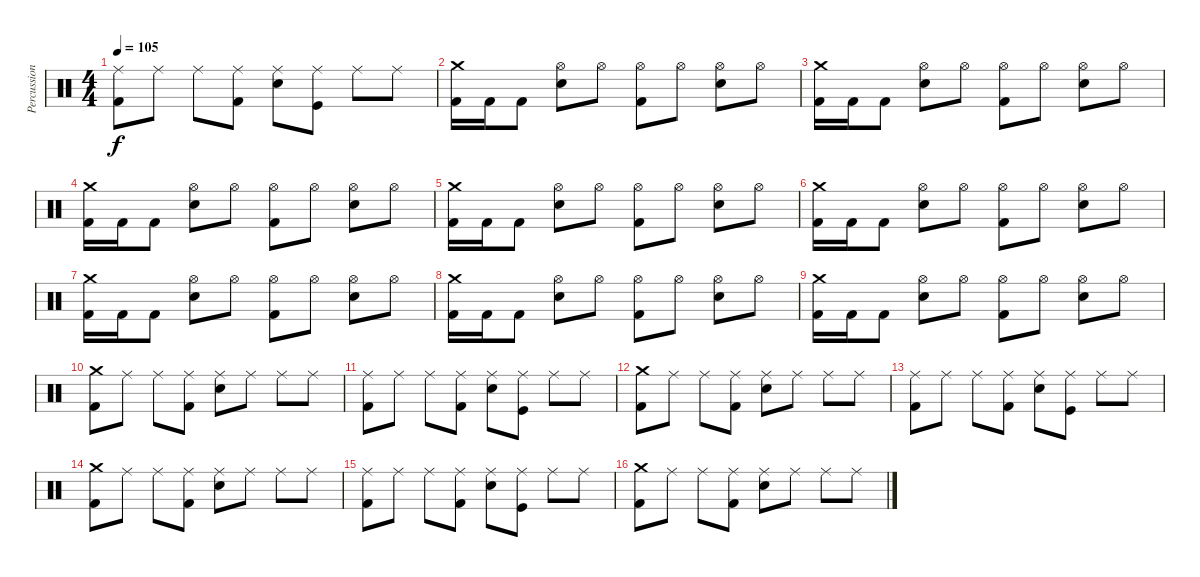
\track ("Percussion" "Percussion") {instrument percussion}
\staff {score}
\articulation defaults
\ts (4 4)
\tempo 105
\clef neutral
\ks c
("Ride (middle)" "Kick (hit) 2").8{dy f} "Ride (middle)".8 "Ride (middle)".8 ("Ride (middle)" "Kick (hit) 2").8 ("Ride (middle)" "Electric Snare (hit)").8 ("Ride (middle)" "Kick (hit)").8 "Ride (middle)".8 "Ride (middle)".8 |
("Crash medium (hit)" "Kick (hit) 2").16 "Kick (hit) 2".16 "Kick (hit) 2".8 ("Hi-Hat (open)" "Electric Snare (hit)").8 "Hi-Hat (open)".8 ("Hi-Hat (open)" "Kick (hit) 2").8 "Hi-Hat (open)".8 ("Hi-Hat (open)" "Electric Snare (hit)").8 "Hi-Hat (open)".8 |
("Crash medium (hit)" "Kick (hit) 2").16 "Kick (hit) 2".16 "Kick (hit) 2".8 ("Hi-Hat (open)" "Electric Snare (hit)").8 "Hi-Hat (open)".8 ("Hi-Hat (open)" "Kick (hit) 2").8 "Hi-Hat (open)".8 ("Hi-Hat (open)" "Electric Snare (hit)").8 "Hi-Hat (open)".8 |
("Crash medium (hit)" "Kick (hit) 2").16 "Kick (hit) 2".16 "Kick (hit) 2".8 ("Hi-Hat (open)" "Electric Snare (hit)").8 "Hi-Hat (open)".8 ("Hi-Hat (open)" "Kick (hit) 2").8 "Hi-Hat (open)".8 ("Hi-Hat (open)" "Electric Snare (hit)").8 "Hi-Hat (open)".8 |
("Crash medium (hit)" "Kick (hit) 2").16 "Kick (hit) 2".16 "Kick (hit) 2".8 ("Hi-Hat (open)" "Electric Snare (hit)").8 "Hi-Hat (open)".8 ("Hi-Hat (open)" "Kick (hit) 2").8 "Hi-Hat (open)".8 ("Hi-Hat (open)" "Electric Snare (hit)").8 "Hi-Hat (open)".8 |
("Crash medium (hit)" "Kick (hit) 2").16 "Kick (hit) 2".16 "Kick (hit) 2".8 ("Hi-Hat (open)" "Electric Snare (hit)").8 "Hi-Hat (open)".8 ("Hi-Hat (open)" "Kick (hit) 2").8 "Hi-Hat (open)".8 ("Hi-Hat (open)" "Electric Snare (hit)").8 "Hi-Hat (open)".8 |
("Crash medium (hit)" "Kick (hit) 2").16 "Kick (hit) 2".16 "Kick (hit) 2".8 ("Hi-Hat (open)" "Electric Snare (hit)").8 "Hi-Hat (open)".8 ("Hi-Hat (open)" "Kick (hit) 2").8 "Hi-Hat (open)".8 ("Hi-Hat (open)" "Electric Snare (hit)").8 "Hi-Hat (open)".8 |
("Crash medium (hit)" "Kick (hit) 2").16 "Kick (hit) 2".16 "Kick (hit) 2".8 ("Hi-Hat (open)" "Electric Snare (hit)").8 "Hi-Hat (open)".8 ("Hi-Hat (open)" "Kick (hit) 2").8 "Hi-Hat (open)".8 ("Hi-Hat (open)" "Electric Snare (hit)").8 "Hi-Hat (open)".8 |
("Crash medium (hit)" "Kick (hit) 2").16 "Kick (hit) 2".16 "Kick (hit) 2".8 ("Hi-Hat (open)" "Electric Snare (hit)").8 "Hi-Hat (open)".8 ("Hi-Hat (open)" "Kick (hit) 2").8 "Hi-Hat (open)".8 ("Hi-Hat (open)" "Electric Snare (hit)").8 "Hi-Hat (open)".8 |
("Crash medium (hit)" "Kick (hit) 2").8 "Ride (middle)".8 "Ride (middle)".8 ("Ride (middle)" "Kick (hit) 2").8 ("Ride (middle)" "Electric Snare (hit)").8 "Ride (middle)".8 "Ride (middle)".8 "Ride (middle)".8 |
("Ride (middle)" "Kick (hit) 2").8 "Ride (middle)".8 "Ride (middle)".8 ("Ride (middle)" "Kick (hit) 2").8 ("Ride (middle)" "Electric Snare (hit)").8 ("Ride (middle)" "Kick (hit)").8 "Ride (middle)".8 "Ride (middle)".8 |
("Crash medium (hit)" "Kick (hit) 2").8 "Ride (middle)".8 "Ride (middle)".8 ("Ride (middle)" "Kick (hit) 2").8 ("Ride (middle)" "Electric Snare (hit)").8 "Ride (middle)".8 "Ride (middle)".8 "Ride (middle)".8 |
("Ride (middle)" "Kick (hit) 2").8 "Ride (middle)".8 "Ride (middle)".8 ("Ride (middle)" "Kick (hit) 2").8 ("Ride (middle)" "Electric Snare (hit)").8 ("Ride (middle)" "Kick (hit)").8 "Ride (middle)".8 "Ride (middle)".8 |
("Crash medium (hit)" "Kick (hit) 2").8 "Ride (middle)".8 "Ride (middle)".8 ("Ride (middle)" "Kick (hit) 2").8 ("Ride (middle)" "Electric Snare (hit)").8 "Ride (middle)".8 "Ride (middle)".8 "Ride (middle)".8 |
("Ride (middle)" "Kick (hit) 2").8 "Ride (middle)".8 "Ride (middle)".8 ("Ride (middle)" "Kick (hit) 2").8 ("Ride (middle)" "Electric Snare (hit)").8 ("Ride (middle)" "Kick (hit)").8 "Ride (middle)".8 "Ride (middle)".8 |
("Crash medium (hit)" "Kick (hit) 2").8 "Ride (middle)".8 "Ride (middle)".8 ("Ride (middle)" "Kick (hit) 2").8 ("Ride (middle)" "Electric Snare (hit)").8 "Ride (middle)".8 "Ride (middle)".8 "Ride (middle)".8
